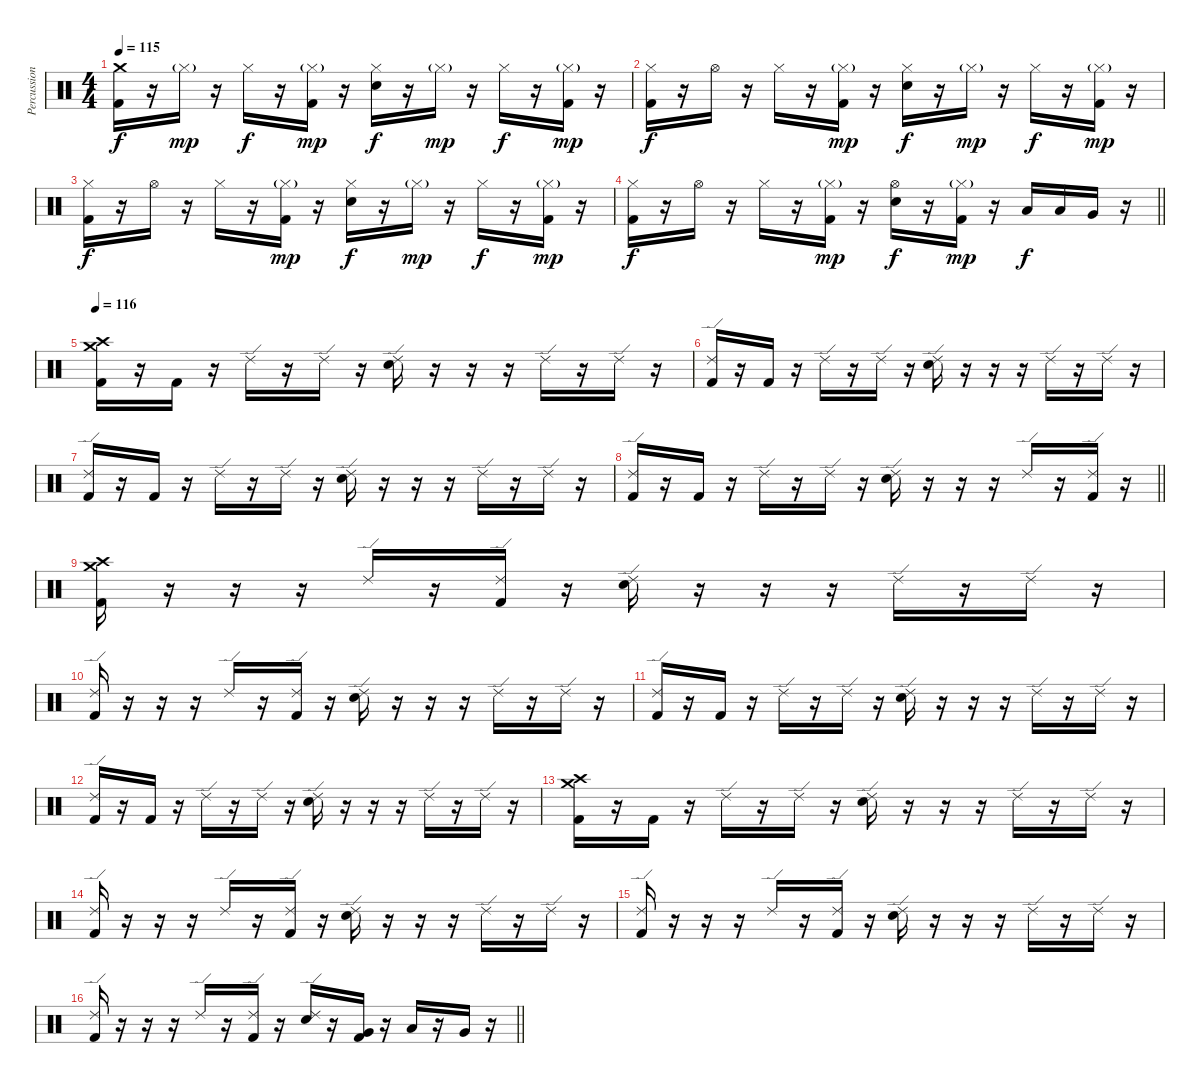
\track ("Percussion" "Percussion") {instrument percussion}
\staff {score}
\articulation defaults
\ts (4 4)
\section ("" "")
\tempo 115
\clef neutral
\ks c
("Crash medium (hit)" "Kick (hit) 2").16{dy f} r.16 "Hi-Hat (closed)"{g}.16{dy mp} r.16 "Hi-Hat (closed)".16{dy f} r.16 ("Hi-Hat (closed)"{g} "Kick (hit) 2").16{dy mp} r.16 ("Hi-Hat (closed)" "Electric Snare (hit)").16{dy f} r.16 "Hi-Hat (closed)"{g}.16{dy mp} r.16 "Hi-Hat (closed)".16{dy f} r.16 ("Hi-Hat (closed)"{g} "Kick (hit) 2").16{dy mp} r.16 |
("Hi-Hat (closed)" "Kick (hit) 2").16{dy f} r.16 "Hi-Hat (open)".16 r.16 "Hi-Hat (closed)".16 r.16 ("Hi-Hat (closed)"{g} "Kick (hit) 2").16{dy mp} r.16 ("Hi-Hat (closed)" "Electric Snare (hit)").16{dy f} r.16 "Hi-Hat (closed)"{g}.16{dy mp} r.16 "Hi-Hat (closed)".16{dy f} r.16 ("Hi-Hat (closed)"{g} "Kick (hit) 2").16{dy mp} r.16 |
("Hi-Hat (closed)" "Kick (hit) 2").16{dy f} r.16 "Hi-Hat (open)".16 r.16 "Hi-Hat (closed)".16 r.16 ("Hi-Hat (closed)"{g} "Kick (hit) 2").16{dy mp} r.16 ("Hi-Hat (closed)" "Electric Snare (hit)").16{dy f} r.16 "Hi-Hat (closed)"{g}.16{dy mp} r.16 "Hi-Hat (closed)".16{dy f} r.16 ("Hi-Hat (closed)"{g} "Kick (hit) 2").16{dy mp} r.16 |
\barLineRight lightlight
("Hi-Hat (closed)" "Kick (hit) 2").16{dy f} r.16 "Hi-Hat (open)".16 r.16 "Hi-Hat (closed)".16 r.16 ("Hi-Hat (closed)"{g} "Kick (hit) 2").16{dy mp} r.16 ("Hi-Hat (open)" "Electric Snare (hit)").16{dy f} r.16 ("Hi-Hat (closed)"{g} "Kick (hit) 2").16{dy mp} r.16 "Low Tom (hit)".16{dy f} "Low Tom (hit)".16 "Very Low Tom (hit)".16 r.16 |
\section ("" "")
\tempo 116
("Crash medium (hit)" "Crash high (hit)" "Kick (hit) 2").16 r.16 "Kick (hit) 2".16 r.16 "Ride (edge) 2".16 r.16 "Ride (edge) 2".16 r.16 ("Ride (edge) 2" "Electric Snare (hit)").16 r.16 r.16 r.16 "Ride (edge) 2".16 r.16 "Ride (edge) 2".16 r.16 |
("Ride (edge) 2" "Kick (hit) 2").16 r.16 "Kick (hit) 2".16 r.16 "Ride (edge) 2".16 r.16 "Ride (edge) 2".16 r.16 ("Ride (edge) 2" "Electric Snare (hit)").16 r.16 r.16 r.16 "Ride (edge) 2".16 r.16 "Ride (edge) 2".16 r.16 |
("Ride (edge) 2" "Kick (hit) 2").16 r.16 "Kick (hit) 2".16 r.16 "Ride (edge) 2".16 r.16 "Ride (edge) 2".16 r.16 ("Ride (edge) 2" "Electric Snare (hit)").16 r.16 r.16 r.16 "Ride (edge) 2".16 r.16 "Ride (edge) 2".16 r.16 |
\barLineRight lightlight
("Ride (edge) 2" "Kick (hit) 2").16 r.16 "Kick (hit) 2".16 r.16 "Ride (edge) 2".16 r.16 "Ride (edge) 2".16 r.16 ("Ride (edge) 2" "Electric Snare (hit)").16 r.16 r.16 r.16 "Ride (edge) 2".16 r.16 ("Ride (edge) 2" "Kick (hit) 2").16 r.16 |
\section ("" "")
("Crash medium (hit)" "Crash high (hit)" "Kick (hit) 2").16 r.16 r.16 r.16 "Ride (edge) 2".16 r.16 ("Ride (edge) 2" "Kick (hit) 2").16 r.16 ("Ride (edge) 2" "Electric Snare (hit)").16 r.16 r.16 r.16 "Ride (edge) 2".16 r.16 "Ride (edge) 2".16 r.16 |
("Ride (edge) 2" "Kick (hit) 2").16 r.16 r.16 r.16 "Ride (edge) 2".16 r.16 ("Ride (edge) 2" "Kick (hit) 2").16 r.16 ("Ride (edge) 2" "Electric Snare (hit)").16 r.16 r.16 r.16 "Ride (edge) 2".16 r.16 "Ride (edge) 2".16 r.16 |
("Ride (edge) 2" "Kick (hit) 2").16 r.16 "Kick (hit) 2".16 r.16 "Ride (edge) 2".16 r.16 "Ride (edge) 2".16 r.16 ("Ride (edge) 2" "Electric Snare (hit)").16 r.16 r.16 r.16 "Ride (edge) 2".16 r.16 "Ride (edge) 2".16 r.16 |
("Ride (edge) 2" "Kick (hit) 2").16 r.16 "Kick (hit) 2".16 r.16 "Ride (edge) 2".16 r.16 "Ride (edge) 2".16 r.16 ("Ride (edge) 2" "Electric Snare (hit)").16 r.16 r.16 r.16 "Ride (edge) 2".16 r.16 "Ride (edge) 2".16 r.16 |
("Crash medium (hit)" "Crash high (hit)" "Kick (hit) 2").16 r.16 "Kick (hit) 2".16 r.16 "Ride (edge) 2".16 r.16 "Ride (edge) 2".16 r.16 ("Ride (edge) 2" "Electric Snare (hit)").16 r.16 r.16 r.16 "Ride (edge) 2".16 r.16 "Ride (edge) 2".16 r.16 |
("Ride (edge) 2" "Kick (hit) 2").16 r.16 r.16 r.16 "Ride (edge) 2".16 r.16 ("Ride (edge) 2" "Kick (hit) 2").16 r.16 ("Ride (edge) 2" "Electric Snare (hit)").16 r.16 r.16 r.16 "Ride (edge) 2".16 r.16 "Ride (edge) 2".16 r.16 |
("Ride (edge) 2" "Kick (hit) 2").16 r.16 r.16 r.16 "Ride (edge) 2".16 r.16 ("Ride (edge) 2" "Kick (hit) 2").16 r.16 ("Ride (edge) 2" "Electric Snare (hit)").16 r.16 r.16 r.16 "Ride (edge) 2".16 r.16 "Ride (edge) 2".16 r.16 |
\barLineRight lightlight
("Ride (edge) 2" "Kick (hit) 2").16 r.16 r.16 r.16 "Ride (edge) 2".16 r.16 ("Ride (edge) 2" "Kick (hit) 2").16 r.16 ("Ride (edge) 2" "Electric Snare (hit)").16 r.16 ("Very Low Tom (hit)" "Kick (hit) 2").16 r.16 "Low Tom (hit)".16 r.16 "Very Low Tom (hit)".16 r.16
